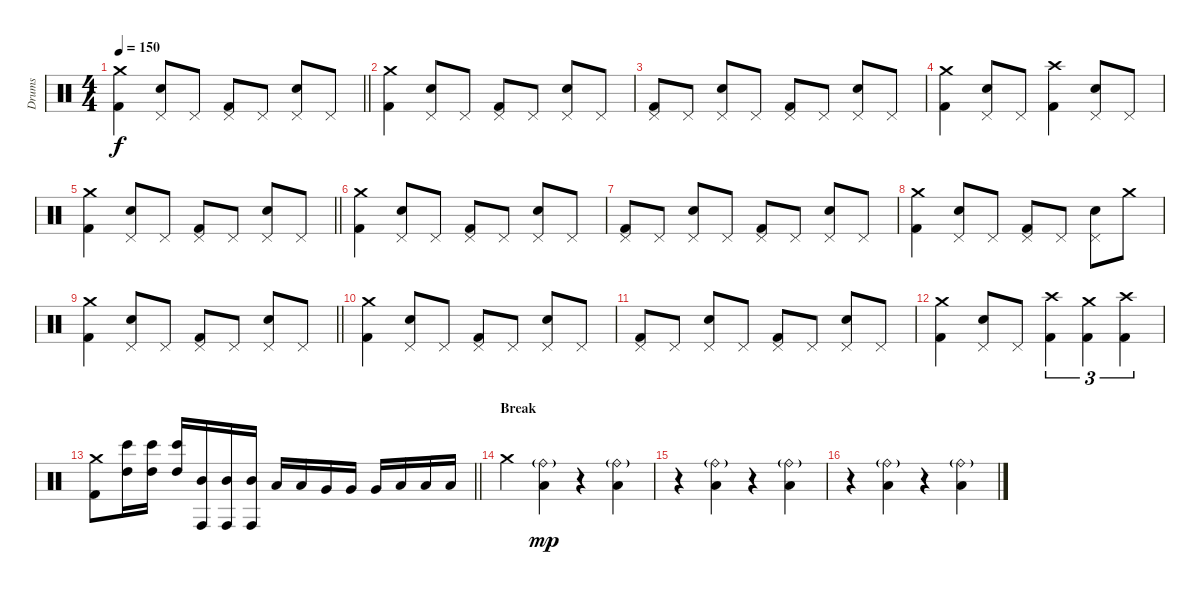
\track ("Drums" "Drums") {instrument percussion}
\staff {score}
\articulation defaults
\ts (4 4)
\tempo 150
\clef neutral
\barLineRight lightlight
\ks c
("Kick (hit) 2" "Crash medium (hit)").4{dy f} ("Snare (hit) 2" "Pedal Hi-Hat (hit)").8 "Pedal Hi-Hat (hit)".8 ("Kick (hit) 2" "Pedal Hi-Hat (hit)").8 "Pedal Hi-Hat (hit)".8 ("Snare (hit) 2" "Pedal Hi-Hat (hit)").8 "Pedal Hi-Hat (hit)".8 |
\section ("" "")
("Kick (hit) 2" "Crash medium (hit)").4 ("Snare (hit) 2" "Pedal Hi-Hat (hit)").8 "Pedal Hi-Hat (hit)".8 ("Kick (hit) 2" "Pedal Hi-Hat (hit)").8 "Pedal Hi-Hat (hit)".8 ("Snare (hit) 2" "Pedal Hi-Hat (hit)").8 "Pedal Hi-Hat (hit)".8 |
("Kick (hit) 2" "Pedal Hi-Hat (hit)").8 "Pedal Hi-Hat (hit)".8 ("Snare (hit) 2" "Pedal Hi-Hat (hit)").8 "Pedal Hi-Hat (hit)".8 ("Kick (hit) 2" "Pedal Hi-Hat (hit)").8 "Pedal Hi-Hat (hit)".8 ("Snare (hit) 2" "Pedal Hi-Hat (hit)").8 "Pedal Hi-Hat (hit)".8 |
("Kick (hit) 2" "Crash medium (hit)").4 ("Snare (hit) 2" "Pedal Hi-Hat (hit)").8 "Pedal Hi-Hat (hit)".8 ("Kick (hit) 2" "Crash high (hit)").4 ("Snare (hit) 2" "Pedal Hi-Hat (hit)").8 "Pedal Hi-Hat (hit)".8 |
\barLineRight lightlight
("Kick (hit) 2" "Crash medium (hit)").4 ("Snare (hit) 2" "Pedal Hi-Hat (hit)").8 "Pedal Hi-Hat (hit)".8 ("Kick (hit) 2" "Pedal Hi-Hat (hit)").8 "Pedal Hi-Hat (hit)".8 ("Snare (hit) 2" "Pedal Hi-Hat (hit)").8 "Pedal Hi-Hat (hit)".8 |
\section ("" "")
("Kick (hit) 2" "Crash medium (hit)").4 ("Snare (hit) 2" "Pedal Hi-Hat (hit)").8 "Pedal Hi-Hat (hit)".8 ("Kick (hit) 2" "Pedal Hi-Hat (hit)").8 "Pedal Hi-Hat (hit)".8 ("Snare (hit) 2" "Pedal Hi-Hat (hit)").8 "Pedal Hi-Hat (hit)".8 |
("Kick (hit) 2" "Pedal Hi-Hat (hit)").8 "Pedal Hi-Hat (hit)".8 ("Snare (hit) 2" "Pedal Hi-Hat (hit)").8 "Pedal Hi-Hat (hit)".8 ("Kick (hit) 2" "Pedal Hi-Hat (hit)").8 "Pedal Hi-Hat (hit)".8 ("Snare (hit) 2" "Pedal Hi-Hat (hit)").8 "Pedal Hi-Hat (hit)".8 |
("Kick (hit) 2" "Crash medium (hit)").4 ("Snare (hit) 2" "Pedal Hi-Hat (hit)").8 "Pedal Hi-Hat (hit)".8 ("Kick (hit) 2" "Pedal Hi-Hat (hit)").8 "Pedal Hi-Hat (hit)".8 ("Snare (hit) 2" "Pedal Hi-Hat (hit)").8 "Crash medium (hit)".8 |
\barLineRight lightlight
("Kick (hit) 2" "Crash medium (hit)").4 ("Snare (hit) 2" "Pedal Hi-Hat (hit)").8 "Pedal Hi-Hat (hit)".8 ("Kick (hit) 2" "Pedal Hi-Hat (hit)").8 "Pedal Hi-Hat (hit)".8 ("Snare (hit) 2" "Pedal Hi-Hat (hit)").8 "Pedal Hi-Hat (hit)".8 |
\section ("" "")
("Kick (hit) 2" "Crash medium (hit)").4 ("Snare (hit) 2" "Pedal Hi-Hat (hit)").8 "Pedal Hi-Hat (hit)".8 ("Kick (hit) 2" "Pedal Hi-Hat (hit)").8 "Pedal Hi-Hat (hit)".8 ("Snare (hit) 2" "Pedal Hi-Hat (hit)").8 "Pedal Hi-Hat (hit)".8 |
("Kick (hit) 2" "Pedal Hi-Hat (hit)").8 "Pedal Hi-Hat (hit)".8 ("Snare (hit) 2" "Pedal Hi-Hat (hit)").8 "Pedal Hi-Hat (hit)".8 ("Kick (hit) 2" "Pedal Hi-Hat (hit)").8 "Pedal Hi-Hat (hit)".8 ("Snare (hit) 2" "Pedal Hi-Hat (hit)").8 "Pedal Hi-Hat (hit)".8 |
("Kick (hit) 2" "Crash medium (hit)").4 ("Snare (hit) 2" "Pedal Hi-Hat (hit)").8 "Pedal Hi-Hat (hit)".8 ("Kick (hit) 2" "Crash high (hit)").4{tu (3 2)} ("Kick (hit) 2" "Crash medium (hit)").4{tu (3 2)} ("Kick (hit) 2" "Crash high (hit)").4{tu (3 2)} |
\barLineRight lightlight
("Kick (hit) 2" "Crash medium (hit)").8 ("High Tom (hit)" "Bongo High (hit)").16 ("High Tom (hit)" "Bongo High (hit)").16 ("High Tom (hit)" "Bongo High (hit)").16 ("Mid Tom (hit)" "Conga high (hit)").16 ("Mid Tom (hit)" "Conga high (hit)").16 ("Mid Tom (hit)" "Conga high (hit)").16 "Low Tom (hit)".16 "Low Tom (hit)".16 "Very Low Tom (hit)".16 "Very Low Tom (hit)".16 "Very Low Tom (hit)".16 "Low Floor Tom (hit)".16 "Low Floor Tom (hit)".16 "Low Floor Tom (hit)".16 |
\section ("" "Break")
"Crash medium (hit)".4 ("Low Floor Tom (hit)" "Ride (bell)"{g}).4{dy mp} r.4 ("Low Floor Tom (hit)" "Ride (bell)"{g}).4 |
r.4 ("Low Floor Tom (hit)" "Ride (bell)"{g}).4 r.4 ("Low Floor Tom (hit)" "Ride (bell)"{g}).4 |
r.4 ("Low Floor Tom (hit)" "Ride (bell)"{g}).4 r.4 ("Low Floor Tom (hit)" "Ride (bell)"{g}).4
